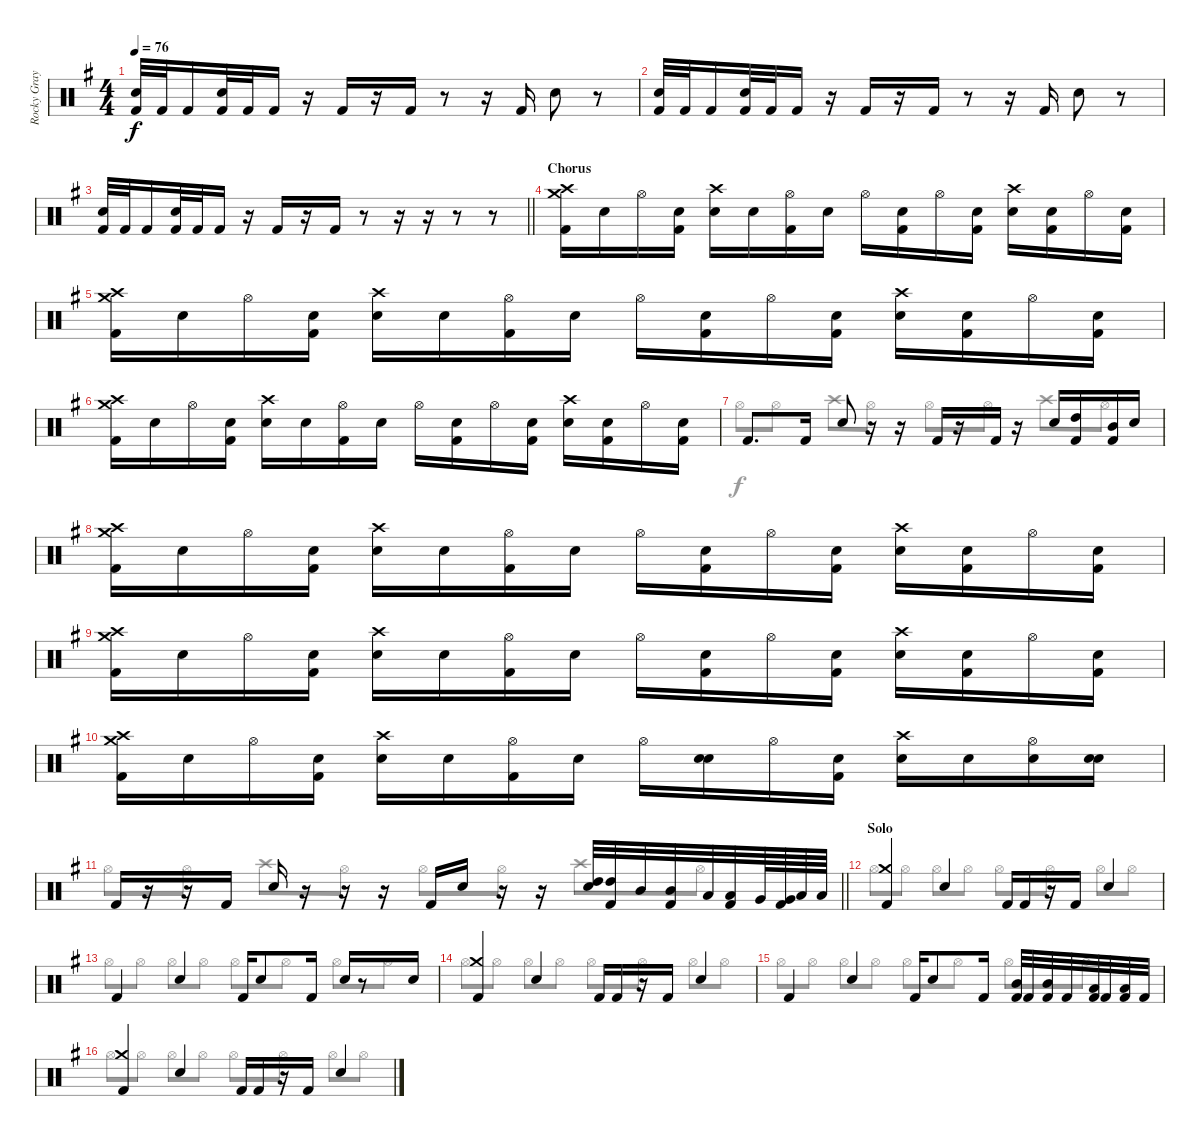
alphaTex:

\track ("Rocky Gray" "Rocky Gray") {instrument percussion}
\staff {score}
\articulation defaults
\voice
\ts (4 4)
\tempo 76
\clef neutral
\ks g
("Electric Snare (hit)" "Kick (hit) 2").32{dy f} "Kick (hit) 2".32 "Kick (hit) 2".16 ("Electric Snare (hit)" "Kick (hit) 2").32 "Kick (hit) 2".32 "Kick (hit) 2".16 r.16 "Kick (hit) 2".16 r.16 "Kick (hit) 2".16 r.8 r.16 "Kick (hit) 2".16 "Snare (hit) 2".8 r.8 |
("Electric Snare (hit)" "Kick (hit) 2").32 "Kick (hit) 2".32 "Kick (hit) 2".16 ("Electric Snare (hit)" "Kick (hit) 2").32 "Kick (hit) 2".32 "Kick (hit) 2".16 r.16 "Kick (hit) 2".16 r.16 "Kick (hit) 2".16 r.8 r.16 "Kick (hit) 2".16 "Snare (hit) 2".8 r.8 |
\barLineRight lightlight
("Electric Snare (hit)" "Kick (hit) 2").32 "Kick (hit) 2".32 "Kick (hit) 2".16 ("Electric Snare (hit)" "Kick (hit) 2").32 "Kick (hit) 2".32 "Kick (hit) 2".16 r.16 "Kick (hit) 2".16 r.16 "Kick (hit) 2".16 r.8 r.16 r.16 r.8 r.8 |
\section ("" "Chorus")
("Crash high (hit)" "Crash medium (hit)" "Kick (hit) 2").16 "Snare (hit)".16 "Hi-Hat (open)".16 ("Snare (hit)" "Kick (hit) 2").16 ("Crash high (hit)" "Electric Snare (hit)").16 "Snare (hit)".16 ("Hi-Hat (open)" "Kick (hit) 2").16 "Snare (hit)".16 "Hi-Hat (open)".16 ("Snare (hit)" "Kick (hit) 2").16 "Hi-Hat (open)".16 ("Snare (hit)" "Kick (hit) 2").16 ("Crash high (hit)" "Electric Snare (hit)").16 ("Snare (hit)" "Kick (hit) 2").16 "Hi-Hat (open)".16 ("Snare (hit)" "Kick (hit) 2").16 |
("Crash high (hit)" "Crash medium (hit)" "Kick (hit) 2").16 "Snare (hit)".16 "Hi-Hat (open)".16 ("Snare (hit)" "Kick (hit) 2").16 ("Crash high (hit)" "Electric Snare (hit)").16 "Snare (hit)".16 ("Hi-Hat (open)" "Kick (hit) 2").16 "Snare (hit)".16 "Hi-Hat (open)".16 ("Snare (hit)" "Kick (hit) 2").16 "Hi-Hat (open)".16 ("Snare (hit)" "Kick (hit) 2").16 ("Crash high (hit)" "Electric Snare (hit)").16 ("Snare (hit)" "Kick (hit) 2").16 "Hi-Hat (open)".16 ("Snare (hit)" "Kick (hit) 2").16 |
("Crash high (hit)" "Crash medium (hit)" "Kick (hit) 2").16 "Snare (hit)".16 "Hi-Hat (open)".16 ("Snare (hit)" "Kick (hit) 2").16 ("Crash high (hit)" "Electric Snare (hit)").16 "Snare (hit)".16 ("Hi-Hat (open)" "Kick (hit) 2").16 "Snare (hit)".16 "Hi-Hat (open)".16 ("Snare (hit)" "Kick (hit) 2").16 "Hi-Hat (open)".16 ("Snare (hit)" "Kick (hit) 2").16 ("Crash high (hit)" "Electric Snare (hit)").16 ("Snare (hit)" "Kick (hit) 2").16 "Hi-Hat (open)".16 ("Snare (hit)" "Kick (hit) 2").16 |
"Kick (hit) 2".8{d} "Kick (hit) 2".16 "Electric Snare (hit)".8 r.16 r.16 "Kick (hit) 2".16 r.16 "Kick (hit) 2".16 r.16 "Electric Snare (hit)".16 ("High Tom (hit)" "Kick (hit) 2").16 ("Mid Tom (hit)" "Kick (hit) 2").16 "Electric Snare (hit)".16 |
("Crash high (hit)" "Crash medium (hit)" "Kick (hit) 2").16 "Snare (hit)".16 "Hi-Hat (open)".16 ("Snare (hit)" "Kick (hit) 2").16 ("Crash high (hit)" "Electric Snare (hit)").16 "Snare (hit)".16 ("Hi-Hat (open)" "Kick (hit) 2").16 "Snare (hit)".16 "Hi-Hat (open)".16 ("Snare (hit)" "Kick (hit) 2").16 "Hi-Hat (open)".16 ("Snare (hit)" "Kick (hit) 2").16 ("Crash high (hit)" "Electric Snare (hit)").16 ("Snare (hit)" "Kick (hit) 2").16 "Hi-Hat (open)".16 ("Snare (hit)" "Kick (hit) 2").16 |
("Crash high (hit)" "Crash medium (hit)" "Kick (hit) 2").16 "Snare (hit)".16 "Hi-Hat (open)".16 ("Snare (hit)" "Kick (hit) 2").16 ("Crash high (hit)" "Electric Snare (hit)").16 "Snare (hit)".16 ("Hi-Hat (open)" "Kick (hit) 2").16 "Snare (hit)".16 "Hi-Hat (open)".16 ("Snare (hit)" "Kick (hit) 2").16 "Hi-Hat (open)".16 ("Snare (hit)" "Kick (hit) 2").16 ("Crash high (hit)" "Electric Snare (hit)").16 ("Snare (hit)" "Kick (hit) 2").16 "Hi-Hat (open)".16 ("Snare (hit)" "Kick (hit) 2").16 |
("Crash high (hit)" "Crash medium (hit)" "Kick (hit) 2").16 "Snare (hit)".16 "Hi-Hat (open)".16 ("Snare (hit)" "Kick (hit) 2").16 ("Crash high (hit)" "Electric Snare (hit)").16 "Snare (hit)".16 ("Hi-Hat (open)" "Kick (hit) 2").16 "Snare (hit)".16 "Hi-Hat (open)".16 ("Snare (hit)" "Electric Snare (hit)").16 "Hi-Hat (open)".16 ("Snare (hit)" "Kick (hit) 2").16 ("Crash high (hit)" "Electric Snare (hit)").16 "Snare (hit)".16 ("Hi-Hat (open)" "Electric Snare (hit)").16 ("Snare (hit)" "Electric Snare (hit)").16 |
\barLineRight lightlight "Kick (hit) 2".16
r.16 r.16 "Kick (hit) 2".16 "Electric Snare (hit)".16 r.16 r.16 r.16 "Kick (hit) 2".16 "Electric Snare (hit)".16 r.16 r.16 ("High Tom (hit)" "Electric Snare (hit)").32 ("High Tom (hit)" "Kick (hit) 2").32 "Mid Tom (hit)".32 ("Mid Tom (hit)" "Kick (hit) 2").32 "Low Tom (hit)".32 ("Low Tom (hit)" "Kick (hit) 2").32 "Very Low Tom (hit)".64 ("Very Low Tom (hit)" "Kick (hit) 2").64 "Low Floor Tom (hit)".64 "Low Floor Tom (hit)".64 |
\section ("" "Solo")
("Crash medium (hit)" "Kick (hit) 2").4{volume 12} "Electric Snare (hit)".4 "Kick (hit) 2".16 "Kick (hit) 2".16 r.16 "Kick (hit) 2".16 "Electric Snare (hit)".4 |
"Kick (hit) 2".4 "Electric Snare (hit)".4 "Kick (hit) 2".16 "Electric Snare (hit)".8 "Kick (hit) 2".16 "Electric Snare (hit)".16 r.8 "Electric Snare (hit)".16 |
("Crash medium (hit)" "Kick (hit) 2").4 "Electric Snare (hit)".4 "Kick (hit) 2".16 "Kick (hit) 2".16 r.16 "Kick (hit) 2".16 "Electric Snare (hit)".4 |
"Kick (hit) 2".4 "Electric Snare (hit)".4 "Kick (hit) 2".16 "Electric Snare (hit)".8 "Kick (hit) 2".16 ("Mid Tom (hit)" "Kick (hit) 2").32 "Kick (hit) 2".32 ("Mid Tom (hit)" "Kick (hit) 2").32 "Kick (hit) 2".32 ("Low Tom (hit)" "Kick (hit) 2").32 "Kick (hit) 2".32 ("Low Tom (hit)" "Kick (hit) 2").32 "Kick (hit) 2".32 |
("Crash medium (hit)" "Kick (hit) 2").4 "Electric Snare (hit)".4 "Kick (hit) 2".16 "Kick (hit) 2".16 r.16 "Kick (hit) 2".16 "Electric Snare (hit)".4
\voice
\clef neutral
\ottava regular
\simile none
\ks g
|
|
\barLineRight lightlight
|
|
|
|
"Hi-Hat (open)".8 "Hi-Hat (open)".8 "Crash high (hit)".8 "Hi-Hat (open)".8 "Hi-Hat (open)".8 "Hi-Hat (open)".8 "Crash high (hit)".8 "Hi-Hat (open)".8 |
|
|
|
\barLineRight lightlight "Hi-Hat (open)".8 "Hi-Hat (open)".8 "Crash high (hit)".8 "Hi-Hat (open)".8 "Hi-Hat (open)".8 "Hi-Hat (open)".8 "Crash high (hit)".8 "Hi-Hat (open)".8
|
"Hi-Hat (open)".8 "Hi-Hat (open)".8 "Hi-Hat (open)".8 "Hi-Hat (open)".8 "Hi-Hat (open)".8 "Hi-Hat (open)".8 "Hi-Hat (open)".8 "Hi-Hat (open)".8 |
"Hi-Hat (open)".8 "Hi-Hat (open)".8 "Hi-Hat (open)".8 "Hi-Hat (open)".8 "Hi-Hat (open)".8 "Hi-Hat (open)".8 "Hi-Hat (open)".8 "Hi-Hat (open)".8 |
"Hi-Hat (open)".8 "Hi-Hat (open)".8 "Hi-Hat (open)".8 "Hi-Hat (open)".8 "Hi-Hat (open)".8 "Hi-Hat (open)".8 "Hi-Hat (open)".8 "Hi-Hat (open)".8 |
"Hi-Hat (open)".8 "Hi-Hat (open)".8 "Hi-Hat (open)".8 "Hi-Hat (open)".8 "Hi-Hat (open)".8 "Hi-Hat (open)".8 "Hi-Hat (open)".8 "Hi-Hat (open)".8 |
"Hi-Hat (open)".8 "Hi-Hat (open)".8 "Hi-Hat (open)".8 "Hi-Hat (open)".8 "Hi-Hat (open)".8 "Hi-Hat (open)".8 "Hi-Hat (open)".8 "Hi-Hat (open)".8
